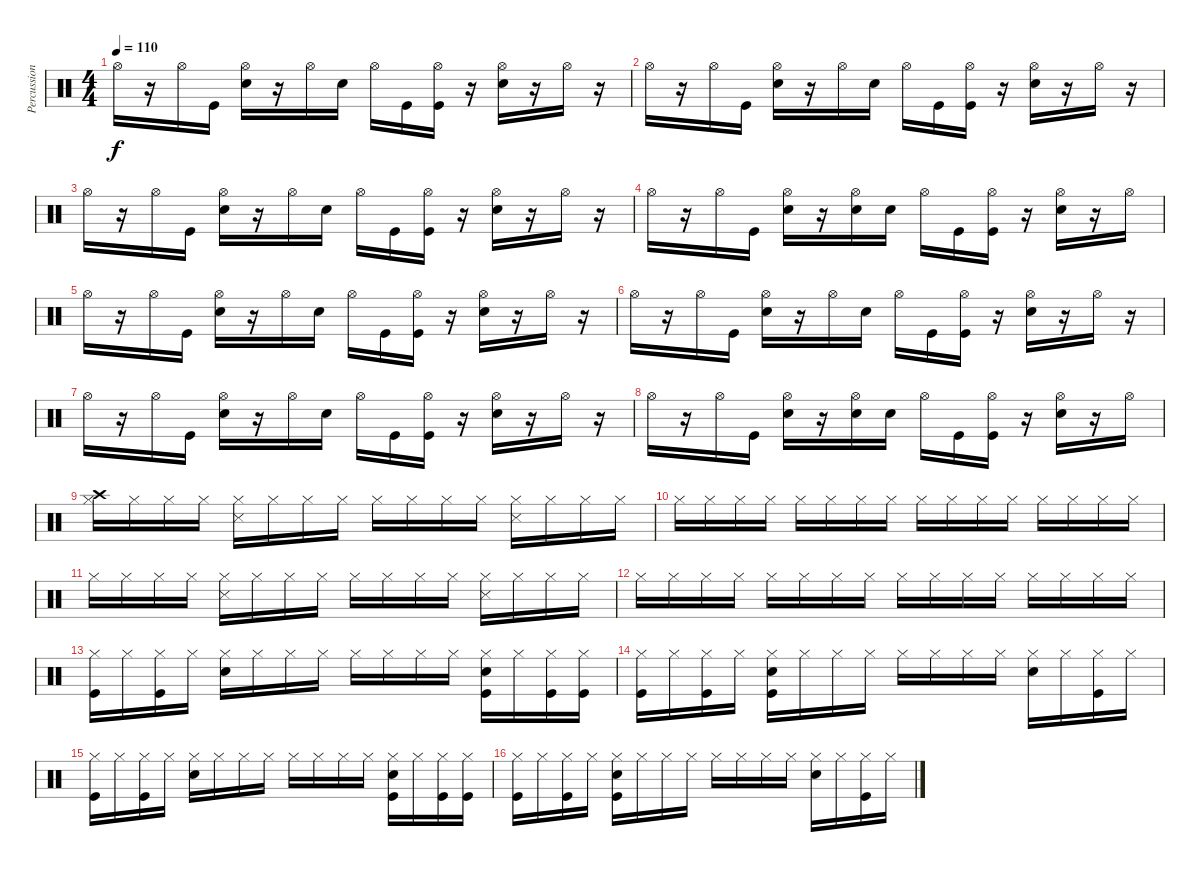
\track ("Percussion" "Percussion") {instrument percussion}
\staff {score}
\articulation defaults
\ts (4 4)
\tempo 110
\clef neutral
\ks c "Hi-Hat (open)".16{dy f}
r.16 "Hi-Hat (open)".16 "Kick (hit)".16 ("Hi-Hat (open)" "Snare (hit) 2").16 r.16 "Hi-Hat (open)".16 "Snare (hit) 2".16 "Hi-Hat (open)".16 "Kick (hit)".16 ("Hi-Hat (open)" "Kick (hit)").16 r.16 ("Hi-Hat (open)" "Snare (hit) 2").16 r.16 "Hi-Hat (open)".16 r.16 |
"Hi-Hat (open)".16 r.16 "Hi-Hat (open)".16 "Kick (hit)".16 ("Hi-Hat (open)" "Snare (hit) 2").16 r.16 "Hi-Hat (open)".16 "Snare (hit) 2".16 "Hi-Hat (open)".16 "Kick (hit)".16 ("Hi-Hat (open)" "Kick (hit)").16 r.16 ("Hi-Hat (open)" "Snare (hit) 2").16 r.16 "Hi-Hat (open)".16 r.16 |
"Hi-Hat (open)".16 r.16 "Hi-Hat (open)".16 "Kick (hit)".16 ("Hi-Hat (open)" "Snare (hit) 2").16 r.16 "Hi-Hat (open)".16 "Snare (hit) 2".16 "Hi-Hat (open)".16 "Kick (hit)".16 ("Hi-Hat (open)" "Kick (hit)").16 r.16 ("Hi-Hat (open)" "Snare (hit) 2").16 r.16 "Hi-Hat (open)".16 r.16 |
"Hi-Hat (open)".16 r.16 "Hi-Hat (open)".16 "Kick (hit)".16 ("Hi-Hat (open)" "Snare (hit) 2").16 r.16 ("Hi-Hat (open)" "Snare (hit) 2").16 "Snare (hit) 2".16 "Hi-Hat (open)".16 "Kick (hit)".16 ("Hi-Hat (open)" "Kick (hit)").16 r.16 ("Hi-Hat (open)" "Snare (hit) 2").16 r.16 "Hi-Hat (open)".16 |
"Hi-Hat (open)".16 r.16 "Hi-Hat (open)".16 "Kick (hit)".16 ("Hi-Hat (open)" "Snare (hit) 2").16 r.16 "Hi-Hat (open)".16 "Snare (hit) 2".16 "Hi-Hat (open)".16 "Kick (hit)".16 ("Hi-Hat (open)" "Kick (hit)").16 r.16 ("Hi-Hat (open)" "Snare (hit) 2").16 r.16 "Hi-Hat (open)".16 r.16 |
"Hi-Hat (open)".16 r.16 "Hi-Hat (open)".16 "Kick (hit)".16 ("Hi-Hat (open)" "Snare (hit) 2").16 r.16 "Hi-Hat (open)".16 "Snare (hit) 2".16 "Hi-Hat (open)".16 "Kick (hit)".16 ("Hi-Hat (open)" "Kick (hit)").16 r.16 ("Hi-Hat (open)" "Snare (hit) 2").16 r.16 "Hi-Hat (open)".16 r.16 |
"Hi-Hat (open)".16 r.16 "Hi-Hat (open)".16 "Kick (hit)".16 ("Hi-Hat (open)" "Snare (hit) 2").16 r.16 "Hi-Hat (open)".16 "Snare (hit) 2".16 "Hi-Hat (open)".16 "Kick (hit)".16 ("Hi-Hat (open)" "Kick (hit)").16 r.16 ("Hi-Hat (open)" "Snare (hit) 2").16 r.16 "Hi-Hat (open)".16 r.16 |
"Hi-Hat (open)".16 r.16 "Hi-Hat (open)".16 "Kick (hit)".16 ("Hi-Hat (open)" "Snare (hit) 2").16 r.16 ("Hi-Hat (open)" "Snare (hit) 2").16 "Snare (hit) 2".16 "Hi-Hat (open)".16 "Kick (hit)".16 ("Hi-Hat (open)" "Kick (hit)").16 r.16 ("Hi-Hat (open)" "Snare (hit) 2").16 r.16 "Hi-Hat (open)".16 |
("Hi-Hat (closed)" "Crash high (hit)").16 "Hi-Hat (closed)".16 "Hi-Hat (closed)".16 "Hi-Hat (closed)".16 ("Hi-Hat (closed)" "Snare (side stick) 3").16 "Hi-Hat (closed)".16 "Hi-Hat (closed)".16 "Hi-Hat (closed)".16 "Hi-Hat (closed)".16 "Hi-Hat (closed)".16 "Hi-Hat (closed)".16 "Hi-Hat (closed)".16 ("Hi-Hat (closed)" "Snare (side stick) 3").16 "Hi-Hat (closed)".16 "Hi-Hat (closed)".16 "Hi-Hat (closed)".16 |
"Hi-Hat (closed)".16 "Hi-Hat (closed)".16 "Hi-Hat (closed)".16 "Hi-Hat (closed)".16 "Hi-Hat (closed)".16 "Hi-Hat (closed)".16 "Hi-Hat (closed)".16 "Hi-Hat (closed)".16 "Hi-Hat (closed)".16 "Hi-Hat (closed)".16 "Hi-Hat (closed)".16 "Hi-Hat (closed)".16 "Hi-Hat (closed)".16 "Hi-Hat (closed)".16 "Hi-Hat (closed)".16 "Hi-Hat (closed)".16 |
"Hi-Hat (closed)".16 "Hi-Hat (closed)".16 "Hi-Hat (closed)".16 "Hi-Hat (closed)".16 ("Hi-Hat (closed)" "Snare (side stick) 3").16 "Hi-Hat (closed)".16 "Hi-Hat (closed)".16 "Hi-Hat (closed)".16 "Hi-Hat (closed)".16 "Hi-Hat (closed)".16 "Hi-Hat (closed)".16 "Hi-Hat (closed)".16 ("Hi-Hat (closed)" "Snare (side stick) 3").16 "Hi-Hat (closed)".16 "Hi-Hat (closed)".16 "Hi-Hat (closed)".16 |
"Hi-Hat (closed)".16 "Hi-Hat (closed)".16 "Hi-Hat (closed)".16 "Hi-Hat (closed)".16 "Hi-Hat (closed)".16 "Hi-Hat (closed)".16 "Hi-Hat (closed)".16 "Hi-Hat (closed)".16 "Hi-Hat (closed)".16 "Hi-Hat (closed)".16 "Hi-Hat (closed)".16 "Hi-Hat (closed)".16 "Hi-Hat (closed)".16 "Hi-Hat (closed)".16 "Hi-Hat (closed)".16 "Hi-Hat (closed)".16 |
("Hi-Hat (closed)" "Kick (hit)").16 "Hi-Hat (closed)".16 ("Hi-Hat (closed)" "Kick (hit)").16 "Hi-Hat (closed)".16 ("Hi-Hat (closed)" "Snare (hit) 2").16 "Hi-Hat (closed)".16 "Hi-Hat (closed)".16 "Hi-Hat (closed)".16 "Hi-Hat (closed)".16 "Hi-Hat (closed)".16 "Hi-Hat (closed)".16 "Hi-Hat (closed)".16 ("Hi-Hat (closed)" "Snare (hit) 2" "Kick (hit)").16 "Hi-Hat (closed)".16 ("Hi-Hat (closed)" "Kick (hit)").16 ("Hi-Hat (closed)" "Kick (hit)").16 |
("Hi-Hat (closed)" "Kick (hit)").16 "Hi-Hat (closed)".16 ("Hi-Hat (closed)" "Kick (hit)").16 "Hi-Hat (closed)".16 ("Hi-Hat (closed)" "Snare (hit) 2" "Kick (hit)").16 "Hi-Hat (closed)".16 "Hi-Hat (closed)".16 "Hi-Hat (closed)".16 "Hi-Hat (closed)".16 "Hi-Hat (closed)".16 "Hi-Hat (closed)".16 "Hi-Hat (closed)".16 ("Hi-Hat (closed)" "Snare (hit) 2").16 "Hi-Hat (closed)".16 ("Hi-Hat (closed)" "Kick (hit)").16 "Hi-Hat (closed)".16 |
("Hi-Hat (closed)" "Kick (hit)").16 "Hi-Hat (closed)".16 ("Hi-Hat (closed)" "Kick (hit)").16 "Hi-Hat (closed)".16 ("Hi-Hat (closed)" "Snare (hit) 2").16 "Hi-Hat (closed)".16 "Hi-Hat (closed)".16 "Hi-Hat (closed)".16 "Hi-Hat (closed)".16 "Hi-Hat (closed)".16 "Hi-Hat (closed)".16 "Hi-Hat (closed)".16 ("Hi-Hat (closed)" "Snare (hit) 2" "Kick (hit)").16 "Hi-Hat (closed)".16 ("Hi-Hat (closed)" "Kick (hit)").16 ("Hi-Hat (closed)" "Kick (hit)").16 |
("Hi-Hat (closed)" "Kick (hit)").16 "Hi-Hat (closed)".16 ("Hi-Hat (closed)" "Kick (hit)").16 "Hi-Hat (closed)".16 ("Hi-Hat (closed)" "Snare (hit) 2" "Kick (hit)").16 "Hi-Hat (closed)".16 "Hi-Hat (closed)".16 "Hi-Hat (closed)".16 "Hi-Hat (closed)".16 "Hi-Hat (closed)".16 "Hi-Hat (closed)".16 "Hi-Hat (closed)".16 ("Hi-Hat (closed)" "Snare (hit) 2").16 "Hi-Hat (closed)".16 ("Hi-Hat (closed)" "Kick (hit)").16 "Hi-Hat (closed)".16
